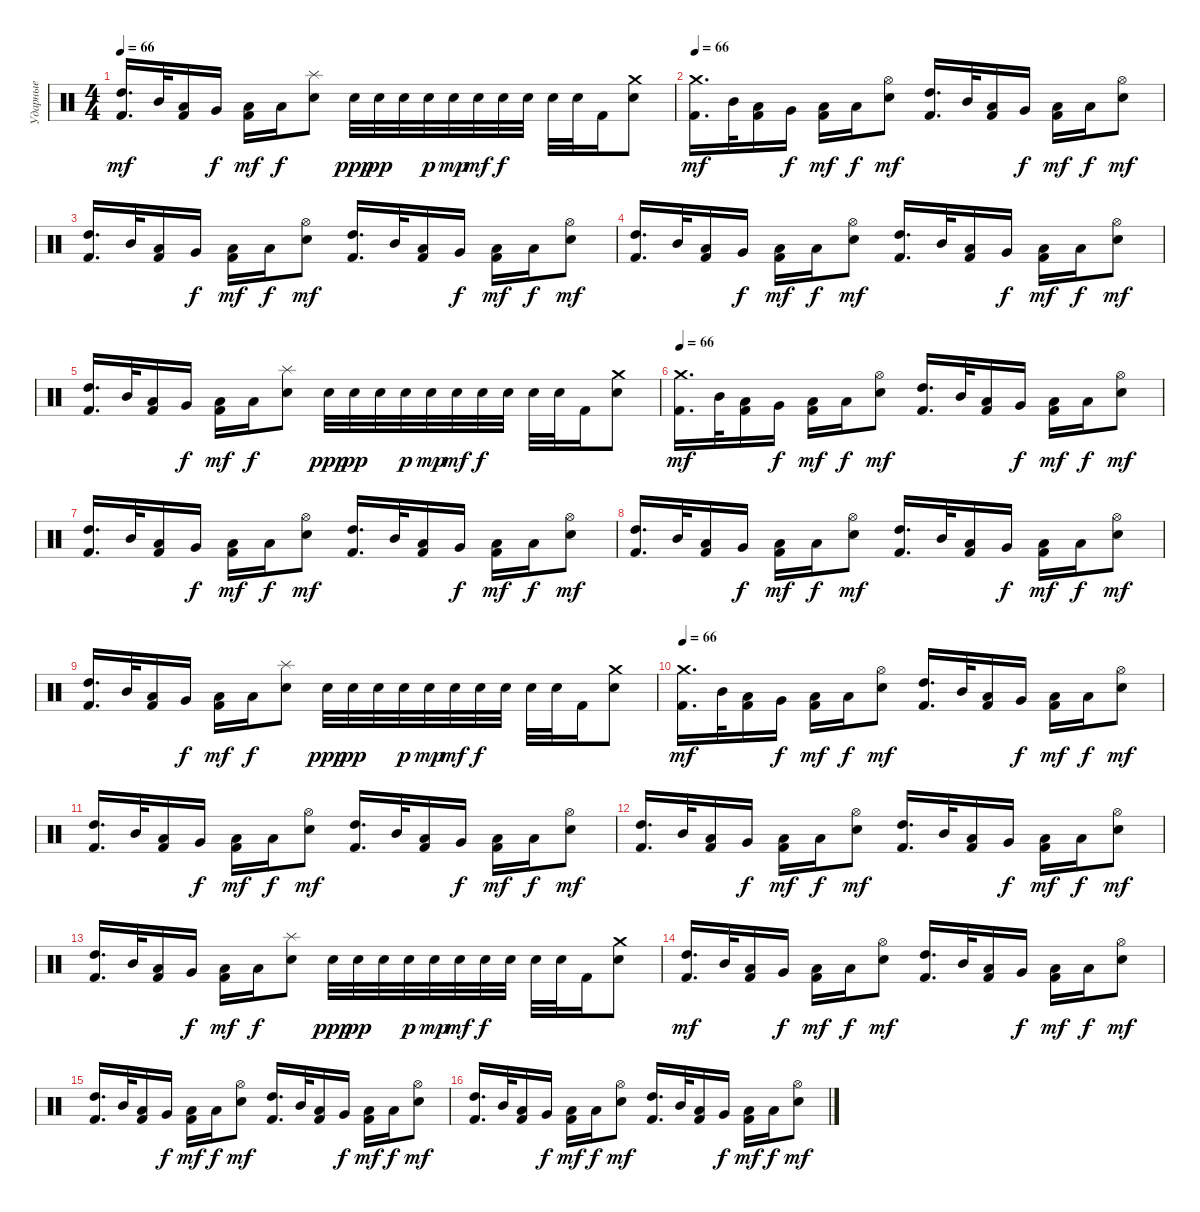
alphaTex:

\track ("Ударные" "Ударные") {instrument percussion}
\staff {score}
\articulation defaults
\ts (4 4)
\tempo 66
\clef neutral
\ks c
("High Tom (hit)" "Kick (hit) 2").16{d dy mf} "Mid Tom (hit)".32 ("Low Tom (hit)" "Kick (hit) 2").16 "Very Low Tom (hit)".16{dy f} ("Low Floor Tom (hit)" "Kick (hit) 2").16{dy mf} "Low Tom (hit)".16{dy f} ("Splash (hit)" "Snare (hit) 2").8 "Snare (hit) 2".32{dy ppp} "Snare (hit) 2".32{dy pp} "Snare (hit) 2".32 "Snare (hit) 2".32{dy p} "Snare (hit) 2".32{dy mp} "Snare (hit) 2".32{dy mf} "Snare (hit) 2".32{dy f} "Snare (hit) 2".32 "Snare (hit) 2".32 "Snare (hit) 2".32 "Kick (hit) 2".16 ("Crash medium (hit)" "Snare (hit) 2").8 |
\tempo 66
("Crash medium (hit)" "Kick (hit) 2").16{d dy mf} "Mid Tom (hit)".32 ("Low Tom (hit)" "Kick (hit) 2").16 "Very Low Tom (hit)".16{dy f} ("Low Floor Tom (hit)" "Kick (hit) 2").16{dy mf} "Low Tom (hit)".16{dy f} ("Hi-Hat (open)" "Snare (hit) 2").8{dy mf} ("High Tom (hit)" "Kick (hit) 2").16{d} "Mid Tom (hit)".32 ("Low Tom (hit)" "Kick (hit) 2").16 "Very Low Tom (hit)".16{dy f} ("Low Floor Tom (hit)" "Kick (hit) 2").16{dy mf} "Low Tom (hit)".16{dy f} ("Hi-Hat (open)" "Snare (hit) 2").8{dy mf} |
("High Tom (hit)" "Kick (hit) 2").16{d} "Mid Tom (hit)".32 ("Low Tom (hit)" "Kick (hit) 2").16 "Very Low Tom (hit)".16{dy f} ("Low Floor Tom (hit)" "Kick (hit) 2").16{dy mf} "Low Tom (hit)".16{dy f} ("Hi-Hat (open)" "Snare (hit) 2").8{dy mf} ("High Tom (hit)" "Kick (hit) 2").16{d} "Mid Tom (hit)".32 ("Low Tom (hit)" "Kick (hit) 2").16 "Very Low Tom (hit)".16{dy f} ("Low Floor Tom (hit)" "Kick (hit) 2").16{dy mf} "Low Tom (hit)".16{dy f} ("Hi-Hat (open)" "Snare (hit) 2").8{dy mf} |
("High Tom (hit)" "Kick (hit) 2").16{d} "Mid Tom (hit)".32 ("Low Tom (hit)" "Kick (hit) 2").16 "Very Low Tom (hit)".16{dy f} ("Low Floor Tom (hit)" "Kick (hit) 2").16{dy mf} "Low Tom (hit)".16{dy f} ("Hi-Hat (open)" "Snare (hit) 2").8{dy mf} ("High Tom (hit)" "Kick (hit) 2").16{d} "Mid Tom (hit)".32 ("Low Tom (hit)" "Kick (hit) 2").16 "Very Low Tom (hit)".16{dy f} ("Low Floor Tom (hit)" "Kick (hit) 2").16{dy mf} "Low Tom (hit)".16{dy f} ("Hi-Hat (open)" "Snare (hit) 2").8{dy mf} |
("High Tom (hit)" "Kick (hit) 2").16{d} "Mid Tom (hit)".32 ("Low Tom (hit)" "Kick (hit) 2").16 "Very Low Tom (hit)".16{dy f} ("Low Floor Tom (hit)" "Kick (hit) 2").16{dy mf} "Low Tom (hit)".16{dy f} ("Splash (hit)" "Snare (hit) 2").8 "Snare (hit) 2".32{dy ppp} "Snare (hit) 2".32{dy pp} "Snare (hit) 2".32 "Snare (hit) 2".32{dy p} "Snare (hit) 2".32{dy mp} "Snare (hit) 2".32{dy mf} "Snare (hit) 2".32{dy f} "Snare (hit) 2".32 "Snare (hit) 2".32 "Snare (hit) 2".32 "Kick (hit) 2".16 ("Crash medium (hit)" "Snare (hit) 2").8 |
\tempo 66
("Crash medium (hit)" "Kick (hit) 2").16{d dy mf} "Mid Tom (hit)".32 ("Low Tom (hit)" "Kick (hit) 2").16 "Very Low Tom (hit)".16{dy f} ("Low Floor Tom (hit)" "Kick (hit) 2").16{dy mf} "Low Tom (hit)".16{dy f} ("Hi-Hat (open)" "Snare (hit) 2").8{dy mf} ("High Tom (hit)" "Kick (hit) 2").16{d} "Mid Tom (hit)".32 ("Low Tom (hit)" "Kick (hit) 2").16 "Very Low Tom (hit)".16{dy f} ("Low Floor Tom (hit)" "Kick (hit) 2").16{dy mf} "Low Tom (hit)".16{dy f} ("Hi-Hat (open)" "Snare (hit) 2").8{dy mf} |
("High Tom (hit)" "Kick (hit) 2").16{d} "Mid Tom (hit)".32 ("Low Tom (hit)" "Kick (hit) 2").16 "Very Low Tom (hit)".16{dy f} ("Low Floor Tom (hit)" "Kick (hit) 2").16{dy mf} "Low Tom (hit)".16{dy f} ("Hi-Hat (open)" "Snare (hit) 2").8{dy mf} ("High Tom (hit)" "Kick (hit) 2").16{d} "Mid Tom (hit)".32 ("Low Tom (hit)" "Kick (hit) 2").16 "Very Low Tom (hit)".16{dy f} ("Low Floor Tom (hit)" "Kick (hit) 2").16{dy mf} "Low Tom (hit)".16{dy f} ("Hi-Hat (open)" "Snare (hit) 2").8{dy mf} |
("High Tom (hit)" "Kick (hit) 2").16{d} "Mid Tom (hit)".32 ("Low Tom (hit)" "Kick (hit) 2").16 "Very Low Tom (hit)".16{dy f} ("Low Floor Tom (hit)" "Kick (hit) 2").16{dy mf} "Low Tom (hit)".16{dy f} ("Hi-Hat (open)" "Snare (hit) 2").8{dy mf} ("High Tom (hit)" "Kick (hit) 2").16{d} "Mid Tom (hit)".32 ("Low Tom (hit)" "Kick (hit) 2").16 "Very Low Tom (hit)".16{dy f} ("Low Floor Tom (hit)" "Kick (hit) 2").16{dy mf} "Low Tom (hit)".16{dy f} ("Hi-Hat (open)" "Snare (hit) 2").8{dy mf} |
("High Tom (hit)" "Kick (hit) 2").16{d} "Mid Tom (hit)".32 ("Low Tom (hit)" "Kick (hit) 2").16 "Very Low Tom (hit)".16{dy f} ("Low Floor Tom (hit)" "Kick (hit) 2").16{dy mf} "Low Tom (hit)".16{dy f} ("Splash (hit)" "Snare (hit) 2").8 "Snare (hit) 2".32{dy ppp} "Snare (hit) 2".32{dy pp} "Snare (hit) 2".32 "Snare (hit) 2".32{dy p} "Snare (hit) 2".32{dy mp} "Snare (hit) 2".32{dy mf} "Snare (hit) 2".32{dy f} "Snare (hit) 2".32 "Snare (hit) 2".32 "Snare (hit) 2".32 "Kick (hit) 2".16 ("Crash medium (hit)" "Snare (hit) 2").8 |
\tempo 66
("Crash medium (hit)" "Kick (hit) 2").16{d dy mf} "Mid Tom (hit)".32 ("Low Tom (hit)" "Kick (hit) 2").16 "Very Low Tom (hit)".16{dy f} ("Low Floor Tom (hit)" "Kick (hit) 2").16{dy mf} "Low Tom (hit)".16{dy f} ("Hi-Hat (open)" "Snare (hit) 2").8{dy mf} ("High Tom (hit)" "Kick (hit) 2").16{d} "Mid Tom (hit)".32 ("Low Tom (hit)" "Kick (hit) 2").16 "Very Low Tom (hit)".16{dy f} ("Low Floor Tom (hit)" "Kick (hit) 2").16{dy mf} "Low Tom (hit)".16{dy f} ("Hi-Hat (open)" "Snare (hit) 2").8{dy mf} |
("High Tom (hit)" "Kick (hit) 2").16{d} "Mid Tom (hit)".32 ("Low Tom (hit)" "Kick (hit) 2").16 "Very Low Tom (hit)".16{dy f} ("Low Floor Tom (hit)" "Kick (hit) 2").16{dy mf} "Low Tom (hit)".16{dy f} ("Hi-Hat (open)" "Snare (hit) 2").8{dy mf} ("High Tom (hit)" "Kick (hit) 2").16{d} "Mid Tom (hit)".32 ("Low Tom (hit)" "Kick (hit) 2").16 "Very Low Tom (hit)".16{dy f} ("Low Floor Tom (hit)" "Kick (hit) 2").16{dy mf} "Low Tom (hit)".16{dy f} ("Hi-Hat (open)" "Snare (hit) 2").8{dy mf} |
("High Tom (hit)" "Kick (hit) 2").16{d} "Mid Tom (hit)".32 ("Low Tom (hit)" "Kick (hit) 2").16 "Very Low Tom (hit)".16{dy f} ("Low Floor Tom (hit)" "Kick (hit) 2").16{dy mf} "Low Tom (hit)".16{dy f} ("Hi-Hat (open)" "Snare (hit) 2").8{dy mf} ("High Tom (hit)" "Kick (hit) 2").16{d} "Mid Tom (hit)".32 ("Low Tom (hit)" "Kick (hit) 2").16 "Very Low Tom (hit)".16{dy f} ("Low Floor Tom (hit)" "Kick (hit) 2").16{dy mf} "Low Tom (hit)".16{dy f} ("Hi-Hat (open)" "Snare (hit) 2").8{dy mf} |
("High Tom (hit)" "Kick (hit) 2").16{d} "Mid Tom (hit)".32 ("Low Tom (hit)" "Kick (hit) 2").16 "Very Low Tom (hit)".16{dy f} ("Low Floor Tom (hit)" "Kick (hit) 2").16{dy mf} "Low Tom (hit)".16{dy f} ("Splash (hit)" "Snare (hit) 2").8 "Snare (hit) 2".32{dy ppp} "Snare (hit) 2".32{dy pp} "Snare (hit) 2".32 "Snare (hit) 2".32{dy p} "Snare (hit) 2".32{dy mp} "Snare (hit) 2".32{dy mf} "Snare (hit) 2".32{dy f} "Snare (hit) 2".32 "Snare (hit) 2".32 "Snare (hit) 2".32 "Kick (hit) 2".16 ("Crash medium (hit)" "Snare (hit) 2").8 |
("High Tom (hit)" "Kick (hit) 2").16{d dy mf} "Mid Tom (hit)".32 ("Low Tom (hit)" "Kick (hit) 2").16 "Very Low Tom (hit)".16{dy f} ("Low Floor Tom (hit)" "Kick (hit) 2").16{dy mf} "Low Tom (hit)".16{dy f} ("Hi-Hat (open)" "Snare (hit) 2").8{dy mf} ("High Tom (hit)" "Kick (hit) 2").16{d} "Mid Tom (hit)".32 ("Low Tom (hit)" "Kick (hit) 2").16 "Very Low Tom (hit)".16{dy f} ("Low Floor Tom (hit)" "Kick (hit) 2").16{dy mf} "Low Tom (hit)".16{dy f} ("Hi-Hat (open)" "Snare (hit) 2").8{dy mf} |
("High Tom (hit)" "Kick (hit) 2").16{d} "Mid Tom (hit)".32 ("Low Tom (hit)" "Kick (hit) 2").16 "Very Low Tom (hit)".16{dy f} ("Low Floor Tom (hit)" "Kick (hit) 2").16{dy mf} "Low Tom (hit)".16{dy f} ("Hi-Hat (open)" "Snare (hit) 2").8{dy mf} ("High Tom (hit)" "Kick (hit) 2").16{d} "Mid Tom (hit)".32 ("Low Tom (hit)" "Kick (hit) 2").16 "Very Low Tom (hit)".16{dy f} ("Low Floor Tom (hit)" "Kick (hit) 2").16{dy mf} "Low Tom (hit)".16{dy f} ("Hi-Hat (open)" "Snare (hit) 2").8{dy mf} |
("High Tom (hit)" "Kick (hit) 2").16{d} "Mid Tom (hit)".32 ("Low Tom (hit)" "Kick (hit) 2").16 "Very Low Tom (hit)".16{dy f} ("Low Floor Tom (hit)" "Kick (hit) 2").16{dy mf} "Low Tom (hit)".16{dy f} ("Hi-Hat (open)" "Snare (hit) 2").8{dy mf} ("High Tom (hit)" "Kick (hit) 2").16{d} "Mid Tom (hit)".32 ("Low Tom (hit)" "Kick (hit) 2").16 "Very Low Tom (hit)".16{dy f} ("Low Floor Tom (hit)" "Kick (hit) 2").16{dy mf} "Low Tom (hit)".16{dy f} ("Hi-Hat (open)" "Snare (hit) 2").8{dy mf}
